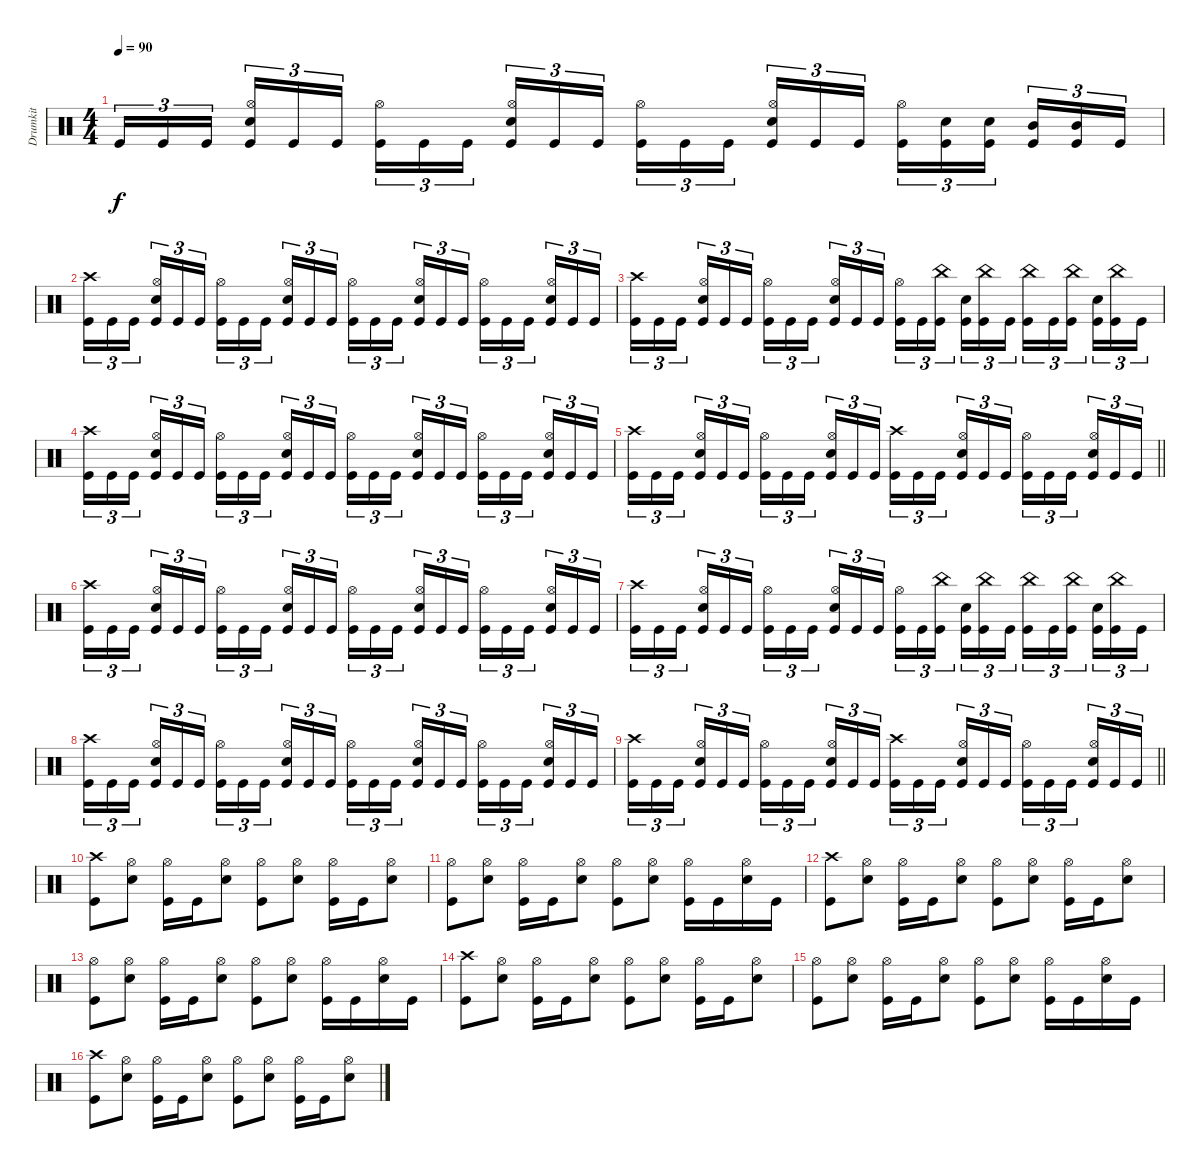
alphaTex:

\track ("Drumkit" "Drumkit") {instrument percussion}
\staff {score}
\articulation defaults
\ts (4 4)
\tempo 90
\clef neutral
\ks c "Kick (hit)".16{tu (3 2) dy f} "Kick (hit)".16{tu (3 2)} "Kick (hit)".16{tu (3 2) beam splitsecondary}
("Hi-Hat (open)" "Snare (hit) 2" "Kick (hit)").16{tu (3 2)} "Kick (hit)".16{tu (3 2)} "Kick (hit)".16{tu (3 2)} ("Hi-Hat (open)" "Kick (hit)").16{tu (3 2)} "Kick (hit)".16{tu (3 2)} "Kick (hit)".16{tu (3 2) beam splitsecondary} ("Hi-Hat (open)" "Snare (hit) 2" "Kick (hit)").16{tu (3 2)} "Kick (hit)".16{tu (3 2)} "Kick (hit)".16{tu (3 2)} ("Hi-Hat (open)" "Kick (hit)").16{tu (3 2)} "Kick (hit)".16{tu (3 2)} "Kick (hit)".16{tu (3 2) beam splitsecondary} ("Hi-Hat (open)" "Snare (hit) 2" "Kick (hit)").16{tu (3 2)} "Kick (hit)".16{tu (3 2)} "Kick (hit)".16{tu (3 2)} ("Hi-Hat (open)" "Kick (hit)").16{tu (3 2)} ("Snare (hit) 2" "Kick (hit)").16{tu (3 2)} ("Snare (hit) 2" "Kick (hit)").16{tu (3 2) beam splitsecondary} ("Mid Tom (hit)" "Kick (hit)").16{tu (3 2)} ("Mid Tom (hit)" "Kick (hit)").16{tu (3 2)} "Kick (hit)".16{tu (3 2)} |
("Crash high (hit)" "Kick (hit)").16{tu (3 2)} "Kick (hit)".16{tu (3 2)} "Kick (hit)".16{tu (3 2) beam splitsecondary} ("Hi-Hat (open)" "Snare (hit) 2" "Kick (hit)").16{tu (3 2)} "Kick (hit)".16{tu (3 2)} "Kick (hit)".16{tu (3 2)} ("Hi-Hat (open)" "Kick (hit)").16{tu (3 2)} "Kick (hit)".16{tu (3 2)} "Kick (hit)".16{tu (3 2) beam splitsecondary} ("Hi-Hat (open)" "Snare (hit) 2" "Kick (hit)").16{tu (3 2)} "Kick (hit)".16{tu (3 2)} "Kick (hit)".16{tu (3 2)} ("Hi-Hat (open)" "Kick (hit)").16{tu (3 2)} "Kick (hit)".16{tu (3 2)} "Kick (hit)".16{tu (3 2) beam splitsecondary} ("Hi-Hat (open)" "Snare (hit) 2" "Kick (hit)").16{tu (3 2)} "Kick (hit)".16{tu (3 2)} "Kick (hit)".16{tu (3 2)} ("Hi-Hat (open)" "Kick (hit)").16{tu (3 2)} "Kick (hit)".16{tu (3 2)} "Kick (hit)".16{tu (3 2) beam splitsecondary} ("Hi-Hat (open)" "Snare (hit) 2" "Kick (hit)").16{tu (3 2)} "Kick (hit)".16{tu (3 2)} "Kick (hit)".16{tu (3 2)} |
("Crash high (hit)" "Kick (hit)").16{tu (3 2)} "Kick (hit)".16{tu (3 2)} "Kick (hit)".16{tu (3 2) beam splitsecondary} ("Hi-Hat (open)" "Snare (hit) 2" "Kick (hit)").16{tu (3 2)} "Kick (hit)".16{tu (3 2)} "Kick (hit)".16{tu (3 2)} ("Hi-Hat (open)" "Kick (hit)").16{tu (3 2)} "Kick (hit)".16{tu (3 2)} "Kick (hit)".16{tu (3 2) beam splitsecondary} ("Hi-Hat (open)" "Snare (hit) 2" "Kick (hit)").16{tu (3 2)} "Kick (hit)".16{tu (3 2)} "Kick (hit)".16{tu (3 2)} ("Hi-Hat (open)" "Kick (hit)").16{tu (3 2)} "Kick (hit)".16{tu (3 2)} ("China (hit)" "Kick (hit)").16{tu (3 2) beam splitsecondary} ("Snare (hit) 2" "Kick (hit)").16{tu (3 2)} ("China (hit)" "Kick (hit)").16{tu (3 2)} "Kick (hit)".16{tu (3 2)} ("China (hit)" "Kick (hit)").16{tu (3 2)} "Kick (hit)".16{tu (3 2)} ("China (hit)" "Kick (hit)").16{tu (3 2) beam splitsecondary} ("Snare (hit) 2" "Kick (hit)").16{tu (3 2)} ("China (hit)" "Kick (hit)").16{tu (3 2)} "Kick (hit)".16{tu (3 2)} |
("Crash high (hit)" "Kick (hit)").16{tu (3 2)} "Kick (hit)".16{tu (3 2)} "Kick (hit)".16{tu (3 2) beam splitsecondary} ("Hi-Hat (open)" "Snare (hit) 2" "Kick (hit)").16{tu (3 2)} "Kick (hit)".16{tu (3 2)} "Kick (hit)".16{tu (3 2)} ("Hi-Hat (open)" "Kick (hit)").16{tu (3 2)} "Kick (hit)".16{tu (3 2)} "Kick (hit)".16{tu (3 2) beam splitsecondary} ("Hi-Hat (open)" "Snare (hit) 2" "Kick (hit)").16{tu (3 2)} "Kick (hit)".16{tu (3 2)} "Kick (hit)".16{tu (3 2)} ("Hi-Hat (open)" "Kick (hit)").16{tu (3 2)} "Kick (hit)".16{tu (3 2)} "Kick (hit)".16{tu (3 2) beam splitsecondary} ("Hi-Hat (open)" "Snare (hit) 2" "Kick (hit)").16{tu (3 2)} "Kick (hit)".16{tu (3 2)} "Kick (hit)".16{tu (3 2)} ("Hi-Hat (open)" "Kick (hit)").16{tu (3 2)} "Kick (hit)".16{tu (3 2)} "Kick (hit)".16{tu (3 2) beam splitsecondary} ("Hi-Hat (open)" "Snare (hit) 2" "Kick (hit)").16{tu (3 2)} "Kick (hit)".16{tu (3 2)} "Kick (hit)".16{tu (3 2)} |
\barLineRight lightlight
("Crash high (hit)" "Kick (hit)").16{tu (3 2)} "Kick (hit)".16{tu (3 2)} "Kick (hit)".16{tu (3 2) beam splitsecondary} ("Hi-Hat (open)" "Snare (hit) 2" "Kick (hit)").16{tu (3 2)} "Kick (hit)".16{tu (3 2)} "Kick (hit)".16{tu (3 2)} ("Hi-Hat (open)" "Kick (hit)").16{tu (3 2)} "Kick (hit)".16{tu (3 2)} "Kick (hit)".16{tu (3 2) beam splitsecondary} ("Hi-Hat (open)" "Snare (hit) 2" "Kick (hit)").16{tu (3 2)} "Kick (hit)".16{tu (3 2)} "Kick (hit)".16{tu (3 2)} ("Crash high (hit)" "Kick (hit)").16{tu (3 2)} "Kick (hit)".16{tu (3 2)} "Kick (hit)".16{tu (3 2) beam splitsecondary} ("Hi-Hat (open)" "Snare (hit) 2" "Kick (hit)").16{tu (3 2)} "Kick (hit)".16{tu (3 2)} "Kick (hit)".16{tu (3 2)} ("Hi-Hat (open)" "Kick (hit)").16{tu (3 2)} "Kick (hit)".16{tu (3 2)} "Kick (hit)".16{tu (3 2) beam splitsecondary} ("Hi-Hat (open)" "Snare (hit) 2" "Kick (hit)").16{tu (3 2)} "Kick (hit)".16{tu (3 2)} "Kick (hit)".16{tu (3 2)} |
("Crash high (hit)" "Kick (hit)").16{tu (3 2)} "Kick (hit)".16{tu (3 2)} "Kick (hit)".16{tu (3 2) beam splitsecondary} ("Hi-Hat (open)" "Snare (hit) 2" "Kick (hit)").16{tu (3 2)} "Kick (hit)".16{tu (3 2)} "Kick (hit)".16{tu (3 2)} ("Hi-Hat (open)" "Kick (hit)").16{tu (3 2)} "Kick (hit)".16{tu (3 2)} "Kick (hit)".16{tu (3 2) beam splitsecondary} ("Hi-Hat (open)" "Snare (hit) 2" "Kick (hit)").16{tu (3 2)} "Kick (hit)".16{tu (3 2)} "Kick (hit)".16{tu (3 2)} ("Hi-Hat (open)" "Kick (hit)").16{tu (3 2)} "Kick (hit)".16{tu (3 2)} "Kick (hit)".16{tu (3 2) beam splitsecondary} ("Hi-Hat (open)" "Snare (hit) 2" "Kick (hit)").16{tu (3 2)} "Kick (hit)".16{tu (3 2)} "Kick (hit)".16{tu (3 2)} ("Hi-Hat (open)" "Kick (hit)").16{tu (3 2)} "Kick (hit)".16{tu (3 2)} "Kick (hit)".16{tu (3 2) beam splitsecondary} ("Hi-Hat (open)" "Snare (hit) 2" "Kick (hit)").16{tu (3 2)} "Kick (hit)".16{tu (3 2)} "Kick (hit)".16{tu (3 2)} |
("Crash high (hit)" "Kick (hit)").16{tu (3 2)} "Kick (hit)".16{tu (3 2)} "Kick (hit)".16{tu (3 2) beam splitsecondary} ("Hi-Hat (open)" "Snare (hit) 2" "Kick (hit)").16{tu (3 2)} "Kick (hit)".16{tu (3 2)} "Kick (hit)".16{tu (3 2)} ("Hi-Hat (open)" "Kick (hit)").16{tu (3 2)} "Kick (hit)".16{tu (3 2)} "Kick (hit)".16{tu (3 2) beam splitsecondary} ("Hi-Hat (open)" "Snare (hit) 2" "Kick (hit)").16{tu (3 2)} "Kick (hit)".16{tu (3 2)} "Kick (hit)".16{tu (3 2)} ("Hi-Hat (open)" "Kick (hit)").16{tu (3 2)} "Kick (hit)".16{tu (3 2)} ("China (hit)" "Kick (hit)").16{tu (3 2) beam splitsecondary} ("Snare (hit) 2" "Kick (hit)").16{tu (3 2)} ("China (hit)" "Kick (hit)").16{tu (3 2)} "Kick (hit)".16{tu (3 2)} ("China (hit)" "Kick (hit)").16{tu (3 2)} "Kick (hit)".16{tu (3 2)} ("China (hit)" "Kick (hit)").16{tu (3 2) beam splitsecondary} ("Snare (hit) 2" "Kick (hit)").16{tu (3 2)} ("China (hit)" "Kick (hit)").16{tu (3 2)} "Kick (hit)".16{tu (3 2)} |
("Crash high (hit)" "Kick (hit)").16{tu (3 2)} "Kick (hit)".16{tu (3 2)} "Kick (hit)".16{tu (3 2) beam splitsecondary} ("Hi-Hat (open)" "Snare (hit) 2" "Kick (hit)").16{tu (3 2)} "Kick (hit)".16{tu (3 2)} "Kick (hit)".16{tu (3 2)} ("Hi-Hat (open)" "Kick (hit)").16{tu (3 2)} "Kick (hit)".16{tu (3 2)} "Kick (hit)".16{tu (3 2) beam splitsecondary} ("Hi-Hat (open)" "Snare (hit) 2" "Kick (hit)").16{tu (3 2)} "Kick (hit)".16{tu (3 2)} "Kick (hit)".16{tu (3 2)} ("Hi-Hat (open)" "Kick (hit)").16{tu (3 2)} "Kick (hit)".16{tu (3 2)} "Kick (hit)".16{tu (3 2) beam splitsecondary} ("Hi-Hat (open)" "Snare (hit) 2" "Kick (hit)").16{tu (3 2)} "Kick (hit)".16{tu (3 2)} "Kick (hit)".16{tu (3 2)} ("Hi-Hat (open)" "Kick (hit)").16{tu (3 2)} "Kick (hit)".16{tu (3 2)} "Kick (hit)".16{tu (3 2) beam splitsecondary} ("Hi-Hat (open)" "Snare (hit) 2" "Kick (hit)").16{tu (3 2)} "Kick (hit)".16{tu (3 2)} "Kick (hit)".16{tu (3 2)} |
\barLineRight lightlight
("Crash high (hit)" "Kick (hit)").16{tu (3 2)} "Kick (hit)".16{tu (3 2)} "Kick (hit)".16{tu (3 2) beam splitsecondary} ("Hi-Hat (open)" "Snare (hit) 2" "Kick (hit)").16{tu (3 2)} "Kick (hit)".16{tu (3 2)} "Kick (hit)".16{tu (3 2)} ("Hi-Hat (open)" "Kick (hit)").16{tu (3 2)} "Kick (hit)".16{tu (3 2)} "Kick (hit)".16{tu (3 2) beam splitsecondary} ("Hi-Hat (open)" "Snare (hit) 2" "Kick (hit)").16{tu (3 2)} "Kick (hit)".16{tu (3 2)} "Kick (hit)".16{tu (3 2)} ("Crash high (hit)" "Kick (hit)").16{tu (3 2)} "Kick (hit)".16{tu (3 2)} "Kick (hit)".16{tu (3 2) beam splitsecondary} ("Hi-Hat (open)" "Snare (hit) 2" "Kick (hit)").16{tu (3 2)} "Kick (hit)".16{tu (3 2)} "Kick (hit)".16{tu (3 2)} ("Hi-Hat (open)" "Kick (hit)").16{tu (3 2)} "Kick (hit)".16{tu (3 2)} "Kick (hit)".16{tu (3 2) beam splitsecondary} ("Hi-Hat (open)" "Snare (hit) 2" "Kick (hit)").16{tu (3 2)} "Kick (hit)".16{tu (3 2)} "Kick (hit)".16{tu (3 2)} |
("Crash high (hit)" "Kick (hit)").8 ("Hi-Hat (open)" "Snare (hit) 2").8 ("Hi-Hat (open)" "Kick (hit)").16 "Kick (hit)".16 ("Hi-Hat (open)" "Snare (hit) 2").8 ("Hi-Hat (open)" "Kick (hit)").8 ("Hi-Hat (open)" "Snare (hit) 2").8 ("Hi-Hat (open)" "Kick (hit)").16 "Kick (hit)".16 ("Hi-Hat (open)" "Snare (hit) 2").8 |
("Hi-Hat (open)" "Kick (hit)").8 ("Hi-Hat (open)" "Snare (hit) 2").8 ("Hi-Hat (open)" "Kick (hit)").16 "Kick (hit)".16 ("Hi-Hat (open)" "Snare (hit) 2").8 ("Hi-Hat (open)" "Kick (hit)").8 ("Hi-Hat (open)" "Snare (hit) 2").8 ("Hi-Hat (open)" "Kick (hit)").16 "Kick (hit)".16 ("Hi-Hat (open)" "Snare (hit) 2").16 "Kick (hit)".16 |
("Crash high (hit)" "Kick (hit)").8 ("Hi-Hat (open)" "Snare (hit) 2").8 ("Hi-Hat (open)" "Kick (hit)").16 "Kick (hit)".16 ("Hi-Hat (open)" "Snare (hit) 2").8 ("Hi-Hat (open)" "Kick (hit)").8 ("Hi-Hat (open)" "Snare (hit) 2").8 ("Hi-Hat (open)" "Kick (hit)").16 "Kick (hit)".16 ("Hi-Hat (open)" "Snare (hit) 2").8 |
("Hi-Hat (open)" "Kick (hit)").8 ("Hi-Hat (open)" "Snare (hit) 2").8 ("Hi-Hat (open)" "Kick (hit)").16 "Kick (hit)".16 ("Hi-Hat (open)" "Snare (hit) 2").8 ("Hi-Hat (open)" "Kick (hit)").8 ("Hi-Hat (open)" "Snare (hit) 2").8 ("Hi-Hat (open)" "Kick (hit)").16 "Kick (hit)".16 ("Hi-Hat (open)" "Snare (hit) 2").16 "Kick (hit)".16 |
("Crash high (hit)" "Kick (hit)").8 ("Hi-Hat (open)" "Snare (hit) 2").8 ("Hi-Hat (open)" "Kick (hit)").16 "Kick (hit)".16 ("Hi-Hat (open)" "Snare (hit) 2").8 ("Hi-Hat (open)" "Kick (hit)").8 ("Hi-Hat (open)" "Snare (hit) 2").8 ("Hi-Hat (open)" "Kick (hit)").16 "Kick (hit)".16 ("Hi-Hat (open)" "Snare (hit) 2").8 |
("Hi-Hat (open)" "Kick (hit)").8 ("Hi-Hat (open)" "Snare (hit) 2").8 ("Hi-Hat (open)" "Kick (hit)").16 "Kick (hit)".16 ("Hi-Hat (open)" "Snare (hit) 2").8 ("Hi-Hat (open)" "Kick (hit)").8 ("Hi-Hat (open)" "Snare (hit) 2").8 ("Hi-Hat (open)" "Kick (hit)").16 "Kick (hit)".16 ("Hi-Hat (open)" "Snare (hit) 2").16 "Kick (hit)".16 |
("Crash high (hit)" "Kick (hit)").8 ("Hi-Hat (open)" "Snare (hit) 2").8 ("Hi-Hat (open)" "Kick (hit)").16 "Kick (hit)".16 ("Hi-Hat (open)" "Snare (hit) 2").8 ("Hi-Hat (open)" "Kick (hit)").8 ("Hi-Hat (open)" "Snare (hit) 2").8 ("Hi-Hat (open)" "Kick (hit)").16 "Kick (hit)".16 ("Hi-Hat (open)" "Snare (hit) 2").8
